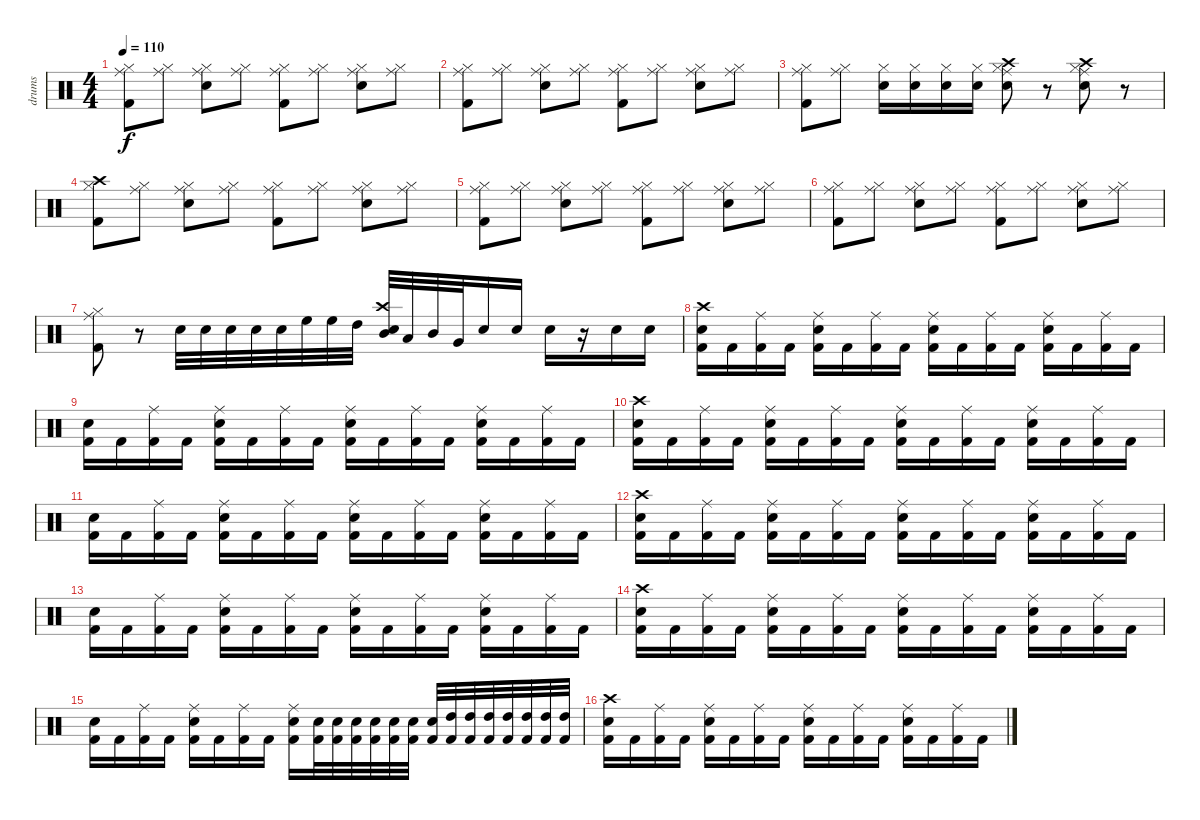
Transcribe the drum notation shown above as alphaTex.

\track ("drums" "drums") {instrument percussion}
\staff {score}
\articulation defaults
\ts (4 4)
\tempo 110
\clef neutral
\ks c
("Hi-Hat (closed)" "Ride (middle)" "Kick (hit) 2").8{dy f} ("Hi-Hat (closed)" "Ride (middle)").8 ("Hi-Hat (closed)" "Ride (middle)" "Electric Snare (hit)").8 ("Hi-Hat (closed)" "Ride (middle)").8 ("Hi-Hat (closed)" "Ride (middle)" "Kick (hit) 2").8 ("Hi-Hat (closed)" "Ride (middle)").8 ("Hi-Hat (closed)" "Ride (middle)" "Electric Snare (hit)").8 ("Hi-Hat (closed)" "Ride (middle)").8 |
("Hi-Hat (closed)" "Ride (middle)" "Kick (hit) 2").8 ("Hi-Hat (closed)" "Ride (middle)").8 ("Hi-Hat (closed)" "Ride (middle)" "Electric Snare (hit)").8 ("Hi-Hat (closed)" "Ride (middle)").8 ("Hi-Hat (closed)" "Ride (middle)" "Kick (hit) 2").8 ("Hi-Hat (closed)" "Ride (middle)").8 ("Hi-Hat (closed)" "Ride (middle)" "Electric Snare (hit)").8 ("Hi-Hat (closed)" "Ride (middle)").8 |
("Hi-Hat (closed)" "Ride (middle)" "Kick (hit) 2").8 ("Hi-Hat (closed)" "Ride (middle)").8 ("Hi-Hat (closed)" "Electric Snare (hit)").16 ("Hi-Hat (closed)" "Electric Snare (hit)").16 ("Hi-Hat (closed)" "Electric Snare (hit)").16 ("Hi-Hat (closed)" "Electric Snare (hit)").16 ("Hi-Hat (closed)" "Snare (hit) 2" "Crash high (hit)" "Ride (middle)").8 r.8 ("Hi-Hat (closed)" "Snare (hit) 2" "Crash high (hit)" "Ride (middle)").8 r.8 |
("Hi-Hat (closed)" "Crash high (hit)" "Kick (hit) 2").8 ("Hi-Hat (closed)" "Ride (middle)").8 ("Hi-Hat (closed)" "Ride (middle)" "Electric Snare (hit)").8 ("Hi-Hat (closed)" "Ride (middle)").8 ("Hi-Hat (closed)" "Ride (middle)" "Kick (hit) 2").8 ("Hi-Hat (closed)" "Ride (middle)").8 ("Hi-Hat (closed)" "Ride (middle)" "Electric Snare (hit)").8 ("Hi-Hat (closed)" "Ride (middle)").8 |
("Hi-Hat (closed)" "Ride (middle)" "Kick (hit) 2").8 ("Hi-Hat (closed)" "Ride (middle)").8 ("Hi-Hat (closed)" "Ride (middle)" "Electric Snare (hit)").8 ("Hi-Hat (closed)" "Ride (middle)").8 ("Hi-Hat (closed)" "Ride (middle)" "Kick (hit) 2").8 ("Hi-Hat (closed)" "Ride (middle)").8 ("Hi-Hat (closed)" "Ride (middle)" "Electric Snare (hit)").8 ("Hi-Hat (closed)" "Ride (middle)").8 |
("Hi-Hat (closed)" "Ride (middle)" "Kick (hit) 2").8 ("Hi-Hat (closed)" "Ride (middle)").8 ("Hi-Hat (closed)" "Ride (middle)" "Electric Snare (hit)").8 ("Hi-Hat (closed)" "Ride (middle)").8 ("Hi-Hat (closed)" "Ride (middle)" "Kick (hit) 2").8 ("Hi-Hat (closed)" "Ride (middle)").8 ("Hi-Hat (closed)" "Ride (middle)" "Electric Snare (hit)").8 ("Hi-Hat (closed)" "Ride (middle)").8 |
("Hi-Hat (closed)" "Ride (middle)" "Kick (hit) 2").8 r.8 "Electric Snare (hit)".32 "Electric Snare (hit)".32 "Electric Snare (hit)".32 "Electric Snare (hit)".32 "Electric Snare (hit)".32 "High Floor Tom (hit)".32 "High Floor Tom (hit)".32 "High Tom (hit)".32 ("Crash high (hit)" "Mid Tom (hit)" "Snare (hit) 2").32 "Low Tom (hit)".32 "Mid Tom (hit)".32 "Very Low Tom (hit)".32 "Electric Snare (hit)".16 "Electric Snare (hit)".16 "Snare (hit) 2".16 r.16 "Electric Snare (hit)".16 "Electric Snare (hit)".16 |
("Kick (hit) 2" "Crash high (hit)" "Snare (hit) 2").16 "Kick (hit) 2".16 ("Kick (hit) 2" "Ride (middle)").16 "Kick (hit) 2".16 ("Kick (hit) 2" "Ride (middle)" "Electric Snare (hit)").16 "Kick (hit) 2".16 ("Kick (hit) 2" "Ride (middle)").16 "Kick (hit) 2".16 ("Kick (hit) 2" "Ride (middle)" "Snare (hit) 2").16 "Kick (hit) 2".16 ("Kick (hit) 2" "Ride (middle)").16 "Kick (hit) 2".16 ("Kick (hit) 2" "Ride (middle)" "Electric Snare (hit)").16 "Kick (hit) 2".16 ("Kick (hit) 2" "Ride (middle)").16 "Kick (hit) 2".16 |
("Kick (hit) 2" "Snare (hit) 2").16 "Kick (hit) 2".16 ("Kick (hit) 2" "Ride (middle)").16 "Kick (hit) 2".16 ("Kick (hit) 2" "Ride (middle)" "Electric Snare (hit)").16 "Kick (hit) 2".16 ("Kick (hit) 2" "Ride (middle)").16 "Kick (hit) 2".16 ("Kick (hit) 2" "Ride (middle)" "Snare (hit) 2").16 "Kick (hit) 2".16 ("Kick (hit) 2" "Ride (middle)").16 "Kick (hit) 2".16 ("Kick (hit) 2" "Ride (middle)" "Electric Snare (hit)").16 "Kick (hit) 2".16 ("Kick (hit) 2" "Ride (middle)").16 "Kick (hit) 2".16 |
("Kick (hit) 2" "Crash high (hit)" "Snare (hit) 2").16 "Kick (hit) 2".16 ("Kick (hit) 2" "Ride (middle)").16 "Kick (hit) 2".16 ("Kick (hit) 2" "Ride (middle)" "Electric Snare (hit)").16 "Kick (hit) 2".16 ("Kick (hit) 2" "Ride (middle)").16 "Kick (hit) 2".16 ("Kick (hit) 2" "Ride (middle)" "Snare (hit) 2").16 "Kick (hit) 2".16 ("Kick (hit) 2" "Ride (middle)").16 "Kick (hit) 2".16 ("Kick (hit) 2" "Ride (middle)" "Electric Snare (hit)").16 "Kick (hit) 2".16 ("Kick (hit) 2" "Ride (middle)").16 "Kick (hit) 2".16 |
("Kick (hit) 2" "Snare (hit) 2").16 "Kick (hit) 2".16 ("Kick (hit) 2" "Ride (middle)").16 "Kick (hit) 2".16 ("Kick (hit) 2" "Ride (middle)" "Electric Snare (hit)").16 "Kick (hit) 2".16 ("Kick (hit) 2" "Ride (middle)").16 "Kick (hit) 2".16 ("Kick (hit) 2" "Ride (middle)" "Snare (hit) 2").16 "Kick (hit) 2".16 ("Kick (hit) 2" "Ride (middle)").16 "Kick (hit) 2".16 ("Kick (hit) 2" "Ride (middle)" "Electric Snare (hit)").16 "Kick (hit) 2".16 ("Kick (hit) 2" "Ride (middle)").16 "Kick (hit) 2".16 |
("Kick (hit) 2" "Crash high (hit)" "Snare (hit) 2").16 "Kick (hit) 2".16 ("Kick (hit) 2" "Ride (middle)").16 "Kick (hit) 2".16 ("Kick (hit) 2" "Ride (middle)" "Electric Snare (hit)").16 "Kick (hit) 2".16 ("Kick (hit) 2" "Ride (middle)").16 "Kick (hit) 2".16 ("Kick (hit) 2" "Ride (middle)" "Snare (hit) 2").16 "Kick (hit) 2".16 ("Kick (hit) 2" "Ride (middle)").16 "Kick (hit) 2".16 ("Kick (hit) 2" "Ride (middle)" "Electric Snare (hit)").16 "Kick (hit) 2".16 ("Kick (hit) 2" "Ride (middle)").16 "Kick (hit) 2".16 |
("Kick (hit) 2" "Snare (hit) 2").16 "Kick (hit) 2".16 ("Kick (hit) 2" "Ride (middle)").16 "Kick (hit) 2".16 ("Kick (hit) 2" "Ride (middle)" "Electric Snare (hit)").16 "Kick (hit) 2".16 ("Kick (hit) 2" "Ride (middle)").16 "Kick (hit) 2".16 ("Kick (hit) 2" "Ride (middle)" "Snare (hit) 2").16 "Kick (hit) 2".16 ("Kick (hit) 2" "Ride (middle)").16 "Kick (hit) 2".16 ("Kick (hit) 2" "Ride (middle)" "Electric Snare (hit)").16 "Kick (hit) 2".16 ("Kick (hit) 2" "Ride (middle)").16 "Kick (hit) 2".16 |
("Kick (hit) 2" "Crash high (hit)" "Snare (hit) 2").16 "Kick (hit) 2".16 ("Kick (hit) 2" "Ride (middle)").16 "Kick (hit) 2".16 ("Kick (hit) 2" "Ride (middle)" "Electric Snare (hit)").16 "Kick (hit) 2".16 ("Kick (hit) 2" "Ride (middle)").16 "Kick (hit) 2".16 ("Kick (hit) 2" "Ride (middle)" "Snare (hit) 2").16 "Kick (hit) 2".16 ("Kick (hit) 2" "Ride (middle)").16 "Kick (hit) 2".16 ("Kick (hit) 2" "Ride (middle)" "Electric Snare (hit)").16 "Kick (hit) 2".16 ("Kick (hit) 2" "Ride (middle)").16 "Kick (hit) 2".16 |
("Kick (hit) 2" "Snare (hit) 2").16 "Kick (hit) 2".16 ("Kick (hit) 2" "Ride (middle)").16 "Kick (hit) 2".16 ("Kick (hit) 2" "Ride (middle)" "Electric Snare (hit)").16 "Kick (hit) 2".16 ("Kick (hit) 2" "Ride (middle)").16 "Kick (hit) 2".16 ("Kick (hit) 2" "Ride (middle)" "Snare (hit) 2").16 ("Kick (hit) 2" "Electric Snare (hit)").32 ("Kick (hit) 2" "Electric Snare (hit)").32 ("Kick (hit) 2" "Electric Snare (hit)").32 ("Kick (hit) 2" "Electric Snare (hit)").32 ("Kick (hit) 2" "Electric Snare (hit)").32 ("Kick (hit) 2" "Electric Snare (hit)").32 ("Kick (hit) 2" "Electric Snare (hit)").32 ("Kick (hit) 2" "High Tom (hit)").32 ("Kick (hit) 2" "High Tom (hit)").32 ("Kick (hit) 2" "High Tom (hit)").32 ("Kick (hit) 2" "High Tom (hit)").32 ("Kick (hit) 2" "High Tom (hit)").32 ("Kick (hit) 2" "High Tom (hit)").32 ("Kick (hit) 2" "High Tom (hit)").32 |
("Kick (hit) 2" "Crash high (hit)" "Snare (hit) 2").16 "Kick (hit) 2".16 ("Kick (hit) 2" "Ride (middle)").16 "Kick (hit) 2".16 ("Kick (hit) 2" "Ride (middle)" "Electric Snare (hit)").16 "Kick (hit) 2".16 ("Kick (hit) 2" "Ride (middle)").16 "Kick (hit) 2".16 ("Kick (hit) 2" "Ride (middle)" "Snare (hit) 2").16 "Kick (hit) 2".16 ("Kick (hit) 2" "Ride (middle)").16 "Kick (hit) 2".16 ("Kick (hit) 2" "Ride (middle)" "Electric Snare (hit)").16 "Kick (hit) 2".16 ("Kick (hit) 2" "Ride (middle)").16 "Kick (hit) 2".16
